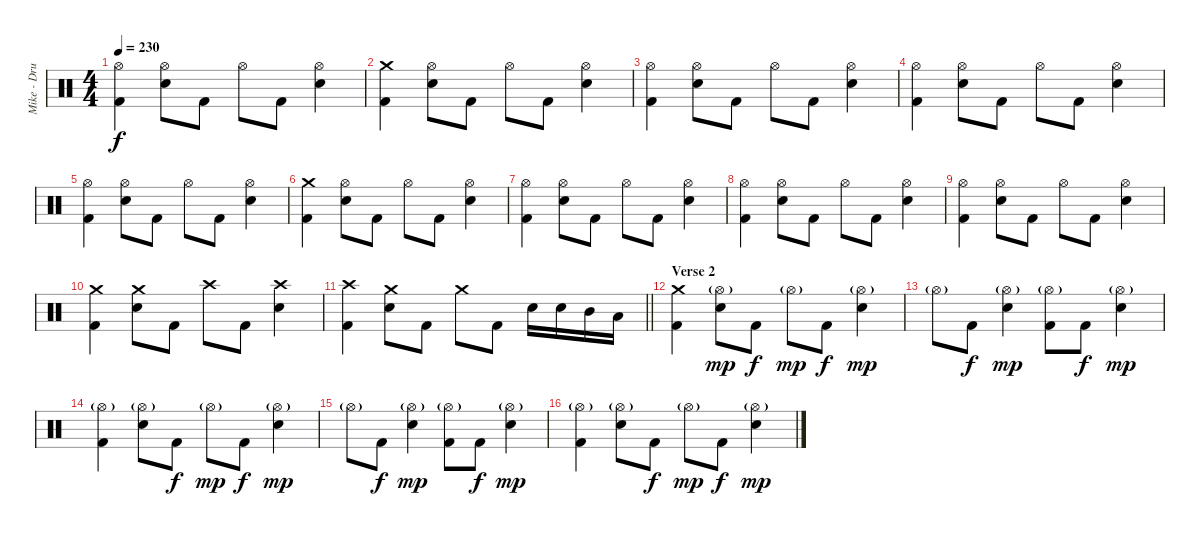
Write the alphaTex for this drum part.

\track ("Mike - Drums" "Mike - Dru") {instrument percussion}
\staff {score}
\articulation defaults
\ts (4 4)
\tempo 230
\clef neutral
\ks c
("Hi-Hat (open)" "Kick (hit) 2").4{dy f} ("Hi-Hat (open)" "Electric Snare (hit)").8 "Kick (hit) 2".8 "Hi-Hat (open)".8 "Kick (hit) 2".8 ("Hi-Hat (open)" "Electric Snare (hit)").4 |
("Crash medium (hit)" "Kick (hit) 2").4 ("Hi-Hat (open)" "Electric Snare (hit)").8 "Kick (hit) 2".8 "Hi-Hat (open)".8 "Kick (hit) 2".8 ("Hi-Hat (open)" "Electric Snare (hit)").4 |
("Hi-Hat (open)" "Kick (hit) 2").4 ("Hi-Hat (open)" "Electric Snare (hit)").8 "Kick (hit) 2".8 "Hi-Hat (open)".8 "Kick (hit) 2".8 ("Hi-Hat (open)" "Electric Snare (hit)").4 |
("Hi-Hat (open)" "Kick (hit) 2").4 ("Hi-Hat (open)" "Electric Snare (hit)").8 "Kick (hit) 2".8 "Hi-Hat (open)".8 "Kick (hit) 2".8 ("Hi-Hat (open)" "Electric Snare (hit)").4 |
("Hi-Hat (open)" "Kick (hit) 2").4 ("Hi-Hat (open)" "Electric Snare (hit)").8 "Kick (hit) 2".8 "Hi-Hat (open)".8 "Kick (hit) 2".8 ("Hi-Hat (open)" "Electric Snare (hit)").4 |
("Crash medium (hit)" "Kick (hit) 2").4 ("Hi-Hat (open)" "Electric Snare (hit)").8 "Kick (hit) 2".8 "Hi-Hat (open)".8 "Kick (hit) 2".8 ("Hi-Hat (open)" "Electric Snare (hit)").4 |
("Hi-Hat (open)" "Kick (hit) 2").4 ("Hi-Hat (open)" "Electric Snare (hit)").8 "Kick (hit) 2".8 "Hi-Hat (open)".8 "Kick (hit) 2".8 ("Hi-Hat (open)" "Electric Snare (hit)").4 |
("Hi-Hat (open)" "Kick (hit) 2").4 ("Hi-Hat (open)" "Electric Snare (hit)").8 "Kick (hit) 2".8 "Hi-Hat (open)".8 "Kick (hit) 2".8 ("Hi-Hat (open)" "Electric Snare (hit)").4 |
("Hi-Hat (open)" "Kick (hit) 2").4 ("Hi-Hat (open)" "Electric Snare (hit)").8 "Kick (hit) 2".8 "Hi-Hat (open)".8 "Kick (hit) 2".8 ("Hi-Hat (open)" "Electric Snare (hit)").4 |
("Crash medium (hit)" "Kick (hit) 2").4 ("Crash medium (hit)" "Electric Snare (hit)").8 "Kick (hit) 2".8 "Crash high (hit)".8 "Kick (hit) 2".8 ("Crash high (hit)" "Electric Snare (hit)").4 |
\barLineRight lightlight
("Crash high (hit)" "Kick (hit) 2").4 ("Crash medium (hit)" "Electric Snare (hit)").8 "Kick (hit) 2".8 "Crash medium (hit)".8 "Kick (hit) 2".8 "Electric Snare (hit)".16 "Electric Snare (hit)".16 "Mid Tom (hit)".16 "Low Tom (hit)".16 |
\section ("" "Verse 2")
("Crash medium (hit)" "Kick (hit) 2").4 ("Hi-Hat (open)"{g} "Electric Snare (hit)").8{dy mp} "Kick (hit) 2".8{dy f} "Hi-Hat (open)"{g}.8{dy mp} "Kick (hit) 2".8{dy f} ("Hi-Hat (open)"{g} "Electric Snare (hit)").4{dy mp} |
"Hi-Hat (open)"{g}.8 "Kick (hit) 2".8{dy f} ("Hi-Hat (open)"{g} "Electric Snare (hit)").4{dy mp} ("Hi-Hat (open)"{g} "Kick (hit) 2").8 "Kick (hit) 2".8{dy f} ("Hi-Hat (open)"{g} "Electric Snare (hit)").4{dy mp} |
("Hi-Hat (open)"{g} "Kick (hit) 2").4 ("Hi-Hat (open)"{g} "Electric Snare (hit)").8 "Kick (hit) 2".8{dy f} "Hi-Hat (open)"{g}.8{dy mp} "Kick (hit) 2".8{dy f} ("Hi-Hat (open)"{g} "Electric Snare (hit)").4{dy mp} |
"Hi-Hat (open)"{g}.8 "Kick (hit) 2".8{dy f} ("Hi-Hat (open)"{g} "Electric Snare (hit)").4{dy mp} ("Hi-Hat (open)"{g} "Kick (hit) 2").8 "Kick (hit) 2".8{dy f} ("Hi-Hat (open)"{g} "Electric Snare (hit)").4{dy mp} |
("Hi-Hat (open)"{g} "Kick (hit) 2").4 ("Hi-Hat (open)"{g} "Electric Snare (hit)").8 "Kick (hit) 2".8{dy f} "Hi-Hat (open)"{g}.8{dy mp} "Kick (hit) 2".8{dy f} ("Hi-Hat (open)"{g} "Electric Snare (hit)").4{dy mp}
